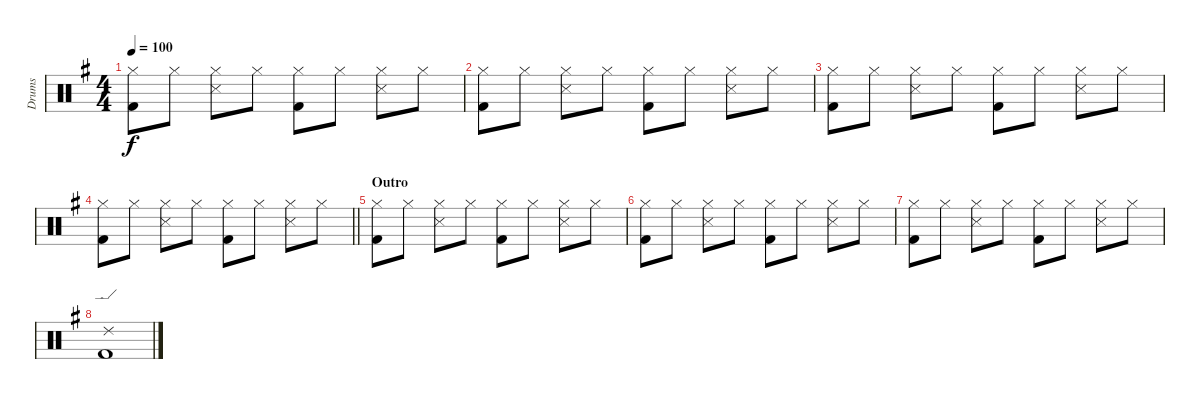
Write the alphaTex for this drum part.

\track ("Drums" "Drums") {instrument percussion}
\staff {score}
\articulation defaults
\ts (4 4)
\tempo 100
\clef neutral
\ks g
("Hi-Hat (closed)" "Kick (hit) 2").8{dy f} "Hi-Hat (closed)".8 ("Hi-Hat (closed)" "Snare (side stick) 3").8 "Hi-Hat (closed)".8 ("Hi-Hat (closed)" "Kick (hit) 2").8 "Hi-Hat (closed)".8 ("Hi-Hat (closed)" "Snare (side stick) 3").8 "Hi-Hat (closed)".8 |
("Hi-Hat (closed)" "Kick (hit) 2").8 "Hi-Hat (closed)".8 ("Hi-Hat (closed)" "Snare (side stick) 3").8 "Hi-Hat (closed)".8 ("Hi-Hat (closed)" "Kick (hit) 2").8 "Hi-Hat (closed)".8 ("Hi-Hat (closed)" "Snare (side stick) 3").8 "Hi-Hat (closed)".8 |
("Hi-Hat (closed)" "Kick (hit) 2").8 "Hi-Hat (closed)".8 ("Hi-Hat (closed)" "Snare (side stick) 3").8 "Hi-Hat (closed)".8 ("Hi-Hat (closed)" "Kick (hit) 2").8 "Hi-Hat (closed)".8 ("Hi-Hat (closed)" "Snare (side stick) 3").8 "Hi-Hat (closed)".8 |
\barLineRight lightlight
("Hi-Hat (closed)" "Kick (hit) 2").8 "Hi-Hat (closed)".8 ("Hi-Hat (closed)" "Snare (side stick) 3").8 "Hi-Hat (closed)".8 ("Hi-Hat (closed)" "Kick (hit) 2").8 "Hi-Hat (closed)".8 ("Hi-Hat (closed)" "Snare (side stick) 3").8 "Hi-Hat (closed)".8 |
\section ("" "Outro")
("Hi-Hat (closed)" "Kick (hit) 2").8 "Hi-Hat (closed)".8 ("Hi-Hat (closed)" "Snare (side stick) 3").8 "Hi-Hat (closed)".8 ("Hi-Hat (closed)" "Kick (hit) 2").8 "Hi-Hat (closed)".8 ("Hi-Hat (closed)" "Snare (side stick) 3").8 "Hi-Hat (closed)".8 |
("Hi-Hat (closed)" "Kick (hit) 2").8 "Hi-Hat (closed)".8 ("Hi-Hat (closed)" "Snare (side stick) 3").8 "Hi-Hat (closed)".8 ("Hi-Hat (closed)" "Kick (hit) 2").8 "Hi-Hat (closed)".8 ("Hi-Hat (closed)" "Snare (side stick) 3").8 "Hi-Hat (closed)".8 |
("Hi-Hat (closed)" "Kick (hit) 2").8 "Hi-Hat (closed)".8 ("Hi-Hat (closed)" "Snare (side stick) 3").8 "Hi-Hat (closed)".8 ("Hi-Hat (closed)" "Kick (hit) 2").8 "Hi-Hat (closed)".8 ("Hi-Hat (closed)" "Snare (side stick) 3").8 "Hi-Hat (closed)".8 |
("Ride (edge) 2" "Kick (hit) 2").1
